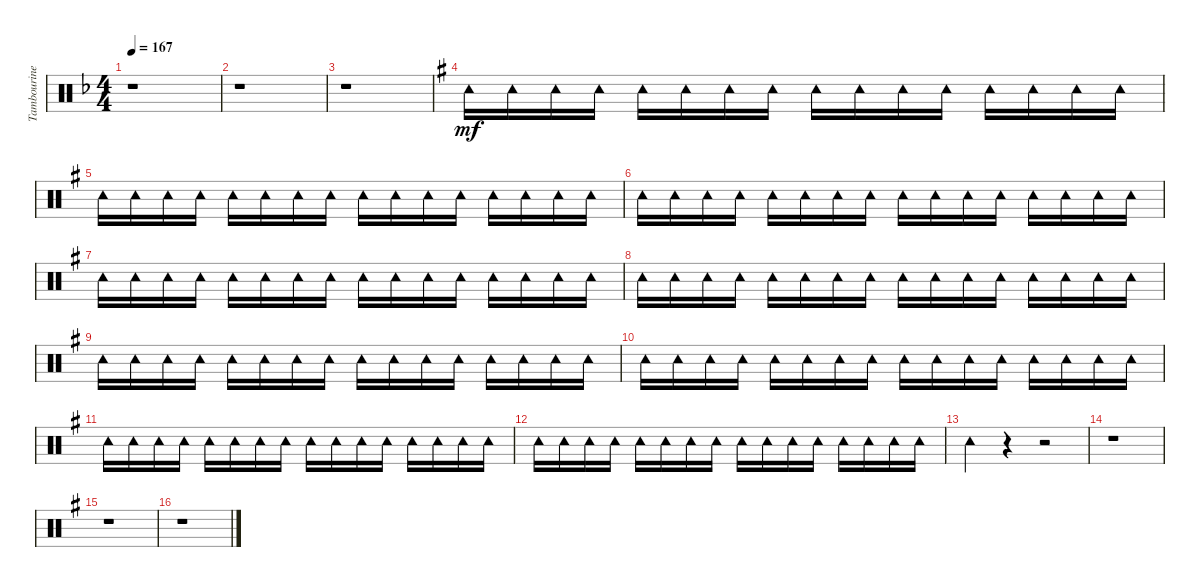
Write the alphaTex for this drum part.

\track ("Tambourine" "Tambourine") {instrument percussion}
\staff {score}
\articulation defaults
\ts (4 4)
\tempo 167
\clef neutral
\ks dminor
r.1{dy mf} |
r.1 |
r.1 |
\ks eminor "Tambourine (hit)".16 "Tambourine (hit)".16 "Tambourine (hit)".16 "Tambourine (hit)".16 "Tambourine (hit)".16 "Tambourine (hit)".16 "Tambourine (hit)".16 "Tambourine (hit)".16 "Tambourine (hit)".16 "Tambourine (hit)".16 "Tambourine (hit)".16 "Tambourine (hit)".16 "Tambourine (hit)".16 "Tambourine (hit)".16 "Tambourine (hit)".16 "Tambourine (hit)".16
|
"Tambourine (hit)".16 "Tambourine (hit)".16 "Tambourine (hit)".16 "Tambourine (hit)".16 "Tambourine (hit)".16 "Tambourine (hit)".16 "Tambourine (hit)".16 "Tambourine (hit)".16 "Tambourine (hit)".16 "Tambourine (hit)".16 "Tambourine (hit)".16 "Tambourine (hit)".16 "Tambourine (hit)".16 "Tambourine (hit)".16 "Tambourine (hit)".16 "Tambourine (hit)".16 |
"Tambourine (hit)".16 "Tambourine (hit)".16 "Tambourine (hit)".16 "Tambourine (hit)".16 "Tambourine (hit)".16 "Tambourine (hit)".16 "Tambourine (hit)".16 "Tambourine (hit)".16 "Tambourine (hit)".16 "Tambourine (hit)".16 "Tambourine (hit)".16 "Tambourine (hit)".16 "Tambourine (hit)".16 "Tambourine (hit)".16 "Tambourine (hit)".16 "Tambourine (hit)".16 |
"Tambourine (hit)".16 "Tambourine (hit)".16 "Tambourine (hit)".16 "Tambourine (hit)".16 "Tambourine (hit)".16 "Tambourine (hit)".16 "Tambourine (hit)".16 "Tambourine (hit)".16 "Tambourine (hit)".16 "Tambourine (hit)".16 "Tambourine (hit)".16 "Tambourine (hit)".16 "Tambourine (hit)".16 "Tambourine (hit)".16 "Tambourine (hit)".16 "Tambourine (hit)".16 |
"Tambourine (hit)".16 "Tambourine (hit)".16 "Tambourine (hit)".16 "Tambourine (hit)".16 "Tambourine (hit)".16 "Tambourine (hit)".16 "Tambourine (hit)".16 "Tambourine (hit)".16 "Tambourine (hit)".16 "Tambourine (hit)".16 "Tambourine (hit)".16 "Tambourine (hit)".16 "Tambourine (hit)".16 "Tambourine (hit)".16 "Tambourine (hit)".16 "Tambourine (hit)".16 |
"Tambourine (hit)".16 "Tambourine (hit)".16 "Tambourine (hit)".16 "Tambourine (hit)".16 "Tambourine (hit)".16 "Tambourine (hit)".16 "Tambourine (hit)".16 "Tambourine (hit)".16 "Tambourine (hit)".16 "Tambourine (hit)".16 "Tambourine (hit)".16 "Tambourine (hit)".16 "Tambourine (hit)".16 "Tambourine (hit)".16 "Tambourine (hit)".16 "Tambourine (hit)".16 |
"Tambourine (hit)".16 "Tambourine (hit)".16 "Tambourine (hit)".16 "Tambourine (hit)".16 "Tambourine (hit)".16 "Tambourine (hit)".16 "Tambourine (hit)".16 "Tambourine (hit)".16 "Tambourine (hit)".16 "Tambourine (hit)".16 "Tambourine (hit)".16 "Tambourine (hit)".16 "Tambourine (hit)".16 "Tambourine (hit)".16 "Tambourine (hit)".16 "Tambourine (hit)".16 |
"Tambourine (hit)".16 "Tambourine (hit)".16 "Tambourine (hit)".16 "Tambourine (hit)".16 "Tambourine (hit)".16 "Tambourine (hit)".16 "Tambourine (hit)".16 "Tambourine (hit)".16 "Tambourine (hit)".16 "Tambourine (hit)".16 "Tambourine (hit)".16 "Tambourine (hit)".16 "Tambourine (hit)".16 "Tambourine (hit)".16 "Tambourine (hit)".16 "Tambourine (hit)".16 |
"Tambourine (hit)".16 "Tambourine (hit)".16 "Tambourine (hit)".16 "Tambourine (hit)".16 "Tambourine (hit)".16 "Tambourine (hit)".16 "Tambourine (hit)".16 "Tambourine (hit)".16 "Tambourine (hit)".16 "Tambourine (hit)".16 "Tambourine (hit)".16 "Tambourine (hit)".16 "Tambourine (hit)".16 "Tambourine (hit)".16 "Tambourine (hit)".16 "Tambourine (hit)".16 |
"Tambourine (hit)".4 r.4 r.2 |
r.1 |
r.1 |
r.1
